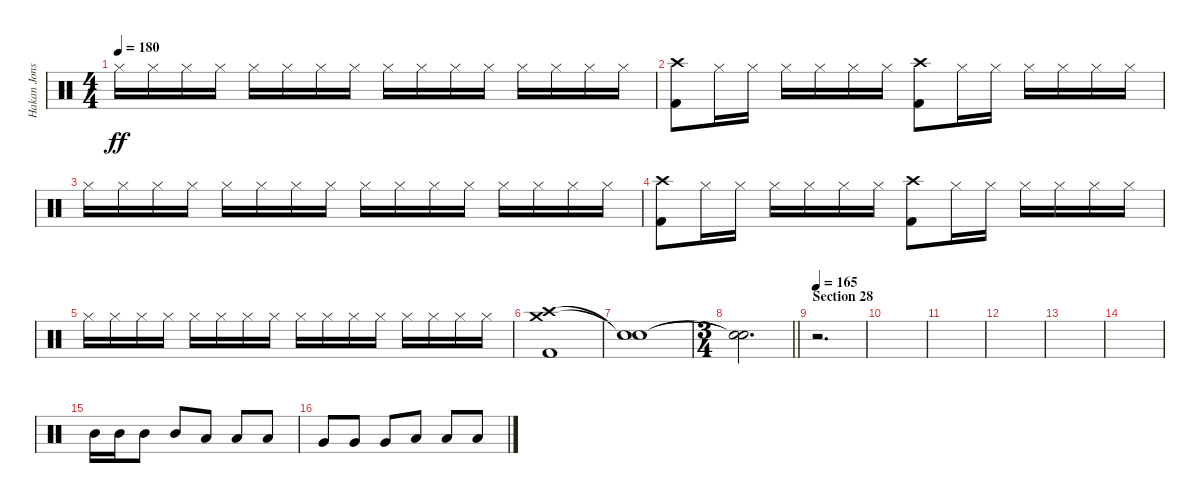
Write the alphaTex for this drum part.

\track ("Hakan Jonsson" "Hakan Jons") {instrument percussion}
\staff {score}
\articulation defaults
\ts (4 4)
\tempo 180
\clef neutral
\ks c "Hi-Hat (closed)".16{dy ff} "Hi-Hat (closed)".16 "Hi-Hat (closed)".16 "Hi-Hat (closed)".16 "Hi-Hat (closed)".16 "Hi-Hat (closed)".16 "Hi-Hat (closed)".16 "Hi-Hat (closed)".16 "Hi-Hat (closed)".16 "Hi-Hat (closed)".16 "Hi-Hat (closed)".16 "Hi-Hat (closed)".16 "Hi-Hat (closed)".16 "Hi-Hat (closed)".16 "Hi-Hat (closed)".16 "Hi-Hat (closed)".16
|
("Crash high (hit)" "Kick (hit) 2").8 "Hi-Hat (closed)".16 "Hi-Hat (closed)".16 "Hi-Hat (closed)".16 "Hi-Hat (closed)".16 "Hi-Hat (closed)".16 "Hi-Hat (closed)".16 ("Crash high (hit)" "Kick (hit) 2").8 "Hi-Hat (closed)".16 "Hi-Hat (closed)".16 "Hi-Hat (closed)".16 "Hi-Hat (closed)".16 "Hi-Hat (closed)".16 "Hi-Hat (closed)".16 |
"Hi-Hat (closed)".16 "Hi-Hat (closed)".16 "Hi-Hat (closed)".16 "Hi-Hat (closed)".16 "Hi-Hat (closed)".16 "Hi-Hat (closed)".16 "Hi-Hat (closed)".16 "Hi-Hat (closed)".16 "Hi-Hat (closed)".16 "Hi-Hat (closed)".16 "Hi-Hat (closed)".16 "Hi-Hat (closed)".16 "Hi-Hat (closed)".16 "Hi-Hat (closed)".16 "Hi-Hat (closed)".16 "Hi-Hat (closed)".16 |
("Crash high (hit)" "Kick (hit) 2").8 "Hi-Hat (closed)".16 "Hi-Hat (closed)".16 "Hi-Hat (closed)".16 "Hi-Hat (closed)".16 "Hi-Hat (closed)".16 "Hi-Hat (closed)".16 ("Crash high (hit)" "Kick (hit) 2").8 "Hi-Hat (closed)".16 "Hi-Hat (closed)".16 "Hi-Hat (closed)".16 "Hi-Hat (closed)".16 "Hi-Hat (closed)".16 "Hi-Hat (closed)".16 |
"Hi-Hat (closed)".16 "Hi-Hat (closed)".16 "Hi-Hat (closed)".16 "Hi-Hat (closed)".16 "Hi-Hat (closed)".16 "Hi-Hat (closed)".16 "Hi-Hat (closed)".16 "Hi-Hat (closed)".16 "Hi-Hat (closed)".16 "Hi-Hat (closed)".16 "Hi-Hat (closed)".16 "Hi-Hat (closed)".16 "Hi-Hat (closed)".16 "Hi-Hat (closed)".16 "Hi-Hat (closed)".16 "Hi-Hat (closed)".16 |
("Crash high (hit)" "Crash medium (hit)" "Kick (hit) 2").1 |
("Snare (hit)"{t} "Snare (hit)"{t}).1 |
\ts (3 4)
\barLineRight lightlight
("Snare (hit)"{t} "Snare (hit)"{t}).2{d} |
\section ("" "Section 28")
\tempo 165
r.2{d} |
|
|
|
|
|
"Mid Tom (hit)".16 "Mid Tom (hit)".16 "Mid Tom (hit)".8 "Mid Tom (hit)".8 "Low Tom (hit)".8 "Low Tom (hit)".8 "Low Tom (hit)".8 |
"Very Low Tom (hit)".8 "Very Low Tom (hit)".8 "Very Low Tom (hit)".8 "Low Floor Tom (hit)".8 "Low Floor Tom (hit)".8 "Low Floor Tom (hit)".8
